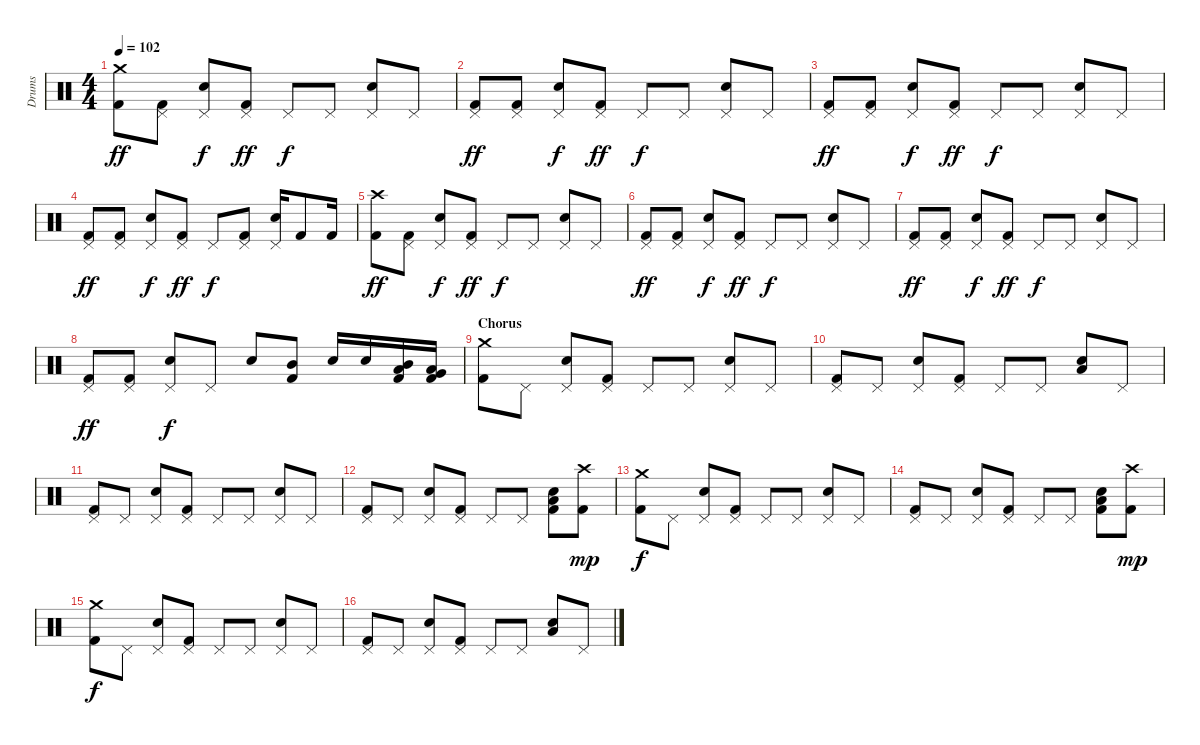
\track ("Drums" "Drums") {instrument percussion}
\staff {score}
\articulation defaults
\ts (4 4)
\tempo 102
\clef neutral
\ks c
("Crash medium (hit)" "Kick (hit) 2").8{dy ff} ("Pedal Hi-Hat (hit)" "Kick (hit) 2").8 ("Electric Snare (hit)" "Pedal Hi-Hat (hit)").8{dy f} ("Pedal Hi-Hat (hit)" "Kick (hit) 2").8{dy ff} "Pedal Hi-Hat (hit)".8{dy f} "Pedal Hi-Hat (hit)".8 ("Electric Snare (hit)" "Pedal Hi-Hat (hit)").8 "Pedal Hi-Hat (hit)".8 |
("Pedal Hi-Hat (hit)" "Kick (hit) 2").8{dy ff} ("Pedal Hi-Hat (hit)" "Kick (hit) 2").8 ("Electric Snare (hit)" "Pedal Hi-Hat (hit)").8{dy f} ("Pedal Hi-Hat (hit)" "Kick (hit) 2").8{dy ff} "Pedal Hi-Hat (hit)".8{dy f} "Pedal Hi-Hat (hit)".8 ("Electric Snare (hit)" "Pedal Hi-Hat (hit)").8 "Pedal Hi-Hat (hit)".8 |
("Pedal Hi-Hat (hit)" "Kick (hit) 2").8{dy ff} ("Pedal Hi-Hat (hit)" "Kick (hit) 2").8 ("Electric Snare (hit)" "Pedal Hi-Hat (hit)").8{dy f} ("Pedal Hi-Hat (hit)" "Kick (hit) 2").8{dy ff} "Pedal Hi-Hat (hit)".8{dy f} "Pedal Hi-Hat (hit)".8 ("Electric Snare (hit)" "Pedal Hi-Hat (hit)").8 "Pedal Hi-Hat (hit)".8 |
("Pedal Hi-Hat (hit)" "Kick (hit) 2").8{dy ff} ("Pedal Hi-Hat (hit)" "Kick (hit) 2").8 ("Electric Snare (hit)" "Pedal Hi-Hat (hit)").8{dy f} ("Pedal Hi-Hat (hit)" "Kick (hit) 2").8{dy ff} "Pedal Hi-Hat (hit)".8{dy f} ("Pedal Hi-Hat (hit)" "Kick (hit) 2").8 ("Electric Snare (hit)" "Pedal Hi-Hat (hit)").16 "Kick (hit) 2".8 "Kick (hit) 2".16 |
("Crash high (hit)" "Kick (hit) 2").8{dy ff} ("Pedal Hi-Hat (hit)" "Kick (hit) 2").8 ("Electric Snare (hit)" "Pedal Hi-Hat (hit)").8{dy f} ("Pedal Hi-Hat (hit)" "Kick (hit) 2").8{dy ff} "Pedal Hi-Hat (hit)".8{dy f} "Pedal Hi-Hat (hit)".8 ("Electric Snare (hit)" "Pedal Hi-Hat (hit)").8 "Pedal Hi-Hat (hit)".8 |
("Pedal Hi-Hat (hit)" "Kick (hit) 2").8{dy ff} ("Pedal Hi-Hat (hit)" "Kick (hit) 2").8 ("Electric Snare (hit)" "Pedal Hi-Hat (hit)").8{dy f} ("Pedal Hi-Hat (hit)" "Kick (hit) 2").8{dy ff} "Pedal Hi-Hat (hit)".8{dy f} "Pedal Hi-Hat (hit)".8 ("Electric Snare (hit)" "Pedal Hi-Hat (hit)").8 "Pedal Hi-Hat (hit)".8 |
("Pedal Hi-Hat (hit)" "Kick (hit) 2").8{dy ff} ("Pedal Hi-Hat (hit)" "Kick (hit) 2").8 ("Electric Snare (hit)" "Pedal Hi-Hat (hit)").8{dy f} ("Pedal Hi-Hat (hit)" "Kick (hit) 2").8{dy ff} "Pedal Hi-Hat (hit)".8{dy f} "Pedal Hi-Hat (hit)".8 ("Electric Snare (hit)" "Pedal Hi-Hat (hit)").8 "Pedal Hi-Hat (hit)".8 |
("Pedal Hi-Hat (hit)" "Kick (hit) 2").8{dy ff} ("Pedal Hi-Hat (hit)" "Kick (hit) 2").8 ("Electric Snare (hit)" "Pedal Hi-Hat (hit)").8{dy f} "Pedal Hi-Hat (hit)".8 "Electric Snare (hit)".8 ("Mid Tom (hit)" "Kick (hit) 2").8 "Electric Snare (hit)".16 "Electric Snare (hit)".16 ("Mid Tom (hit)" "Low Tom (hit)" "Kick (hit) 2").16 ("Low Tom (hit)" "Very Low Tom (hit)" "Kick (hit) 2").16 |
\section ("" "Chorus")
("Crash medium (hit)" "Kick (hit) 2").8 "Pedal Hi-Hat (hit)".8 ("Electric Snare (hit)" "Pedal Hi-Hat (hit)").8 ("Pedal Hi-Hat (hit)" "Kick (hit) 2").8 "Pedal Hi-Hat (hit)".8 "Pedal Hi-Hat (hit)".8 ("Electric Snare (hit)" "Pedal Hi-Hat (hit)").8 "Pedal Hi-Hat (hit)".8 |
("Pedal Hi-Hat (hit)" "Kick (hit) 2").8 "Pedal Hi-Hat (hit)".8 ("Electric Snare (hit)" "Pedal Hi-Hat (hit)").8 ("Pedal Hi-Hat (hit)" "Kick (hit) 2").8 "Pedal Hi-Hat (hit)".8 "Pedal Hi-Hat (hit)".8 ("Electric Snare (hit)" "Low Floor Tom (hit)").8 "Pedal Hi-Hat (hit)".8 |
("Pedal Hi-Hat (hit)" "Kick (hit) 2").8 "Pedal Hi-Hat (hit)".8 ("Electric Snare (hit)" "Pedal Hi-Hat (hit)").8 ("Pedal Hi-Hat (hit)" "Kick (hit) 2").8 "Pedal Hi-Hat (hit)".8 "Pedal Hi-Hat (hit)".8 ("Electric Snare (hit)" "Pedal Hi-Hat (hit)").8 "Pedal Hi-Hat (hit)".8 |
("Pedal Hi-Hat (hit)" "Kick (hit) 2").8 "Pedal Hi-Hat (hit)".8 ("Electric Snare (hit)" "Pedal Hi-Hat (hit)").8 ("Pedal Hi-Hat (hit)" "Kick (hit) 2").8 "Pedal Hi-Hat (hit)".8 "Pedal Hi-Hat (hit)".8 ("Electric Snare (hit)" "Low Tom (hit)" "Kick (hit) 2").8 ("Crash high (hit)" "Kick (hit) 2").8{dy mp} |
("Crash medium (hit)" "Kick (hit) 2").8{dy f} "Pedal Hi-Hat (hit)".8 ("Electric Snare (hit)" "Pedal Hi-Hat (hit)").8 ("Pedal Hi-Hat (hit)" "Kick (hit) 2").8 "Pedal Hi-Hat (hit)".8 "Pedal Hi-Hat (hit)".8 ("Electric Snare (hit)" "Pedal Hi-Hat (hit)").8 "Pedal Hi-Hat (hit)".8 |
("Pedal Hi-Hat (hit)" "Kick (hit) 2").8 "Pedal Hi-Hat (hit)".8 ("Electric Snare (hit)" "Pedal Hi-Hat (hit)").8 ("Pedal Hi-Hat (hit)" "Kick (hit) 2").8 "Pedal Hi-Hat (hit)".8 "Pedal Hi-Hat (hit)".8 ("Electric Snare (hit)" "Low Tom (hit)" "Kick (hit) 2").8 ("Crash high (hit)" "Kick (hit) 2").8{dy mp} |
("Crash medium (hit)" "Kick (hit) 2").8{dy f} "Pedal Hi-Hat (hit)".8 ("Electric Snare (hit)" "Pedal Hi-Hat (hit)").8 ("Pedal Hi-Hat (hit)" "Kick (hit) 2").8 "Pedal Hi-Hat (hit)".8 "Pedal Hi-Hat (hit)".8 ("Electric Snare (hit)" "Pedal Hi-Hat (hit)").8 "Pedal Hi-Hat (hit)".8 |
("Pedal Hi-Hat (hit)" "Kick (hit) 2").8 "Pedal Hi-Hat (hit)".8 ("Electric Snare (hit)" "Pedal Hi-Hat (hit)").8 ("Pedal Hi-Hat (hit)" "Kick (hit) 2").8 "Pedal Hi-Hat (hit)".8 "Pedal Hi-Hat (hit)".8 ("Electric Snare (hit)" "Low Floor Tom (hit)").8 "Pedal Hi-Hat (hit)".8
